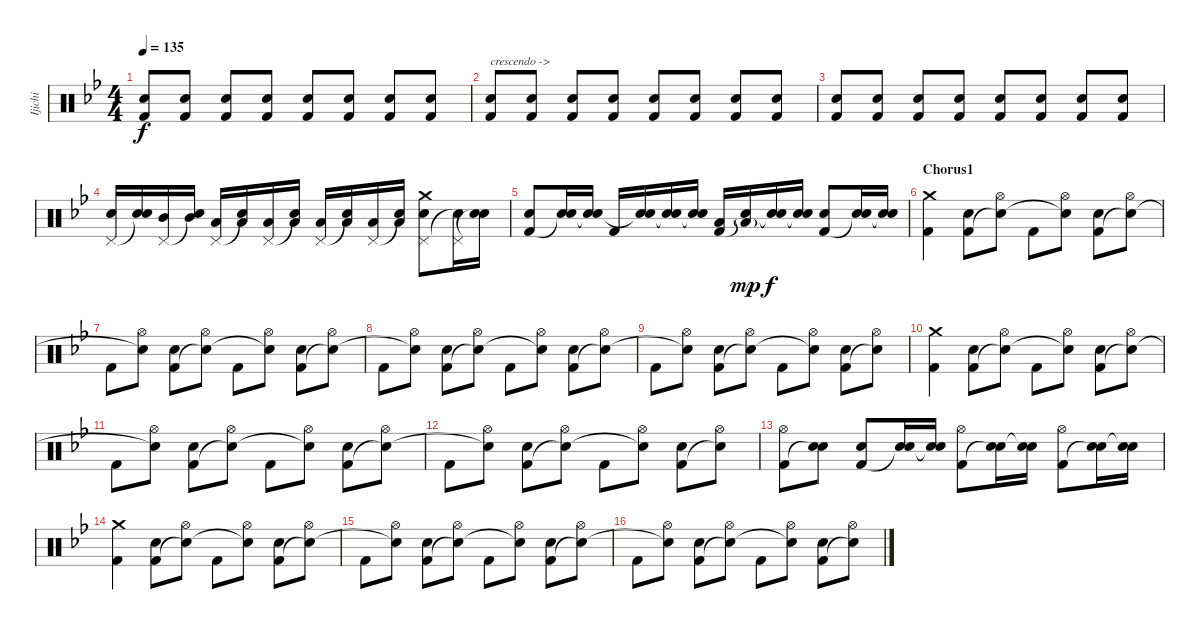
\track ("Ijichi" "Ijichi") {instrument percussion}
\staff {score}
\articulation defaults
\ts (4 4)
\tempo 135
\clef neutral
\ks bb
("Electric Snare (hit)" "Kick (hit) 2").8{dy f} ("Electric Snare (hit)" "Kick (hit) 2").8 ("Electric Snare (hit)" "Kick (hit) 2").8 ("Electric Snare (hit)" "Kick (hit) 2").8 ("Electric Snare (hit)" "Kick (hit) 2").8 ("Electric Snare (hit)" "Kick (hit) 2").8 ("Electric Snare (hit)" "Kick (hit) 2").8 ("Electric Snare (hit)" "Kick (hit) 2").8 |
("Electric Snare (hit)" "Kick (hit) 2").8{txt "crescendo ->"} ("Electric Snare (hit)" "Kick (hit) 2").8 ("Electric Snare (hit)" "Kick (hit) 2").8 ("Electric Snare (hit)" "Kick (hit) 2").8 ("Electric Snare (hit)" "Kick (hit) 2").8 ("Electric Snare (hit)" "Kick (hit) 2").8 ("Electric Snare (hit)" "Kick (hit) 2").8 ("Electric Snare (hit)" "Kick (hit) 2").8 |
("Electric Snare (hit)" "Kick (hit) 2").8 ("Electric Snare (hit)" "Kick (hit) 2").8 ("Electric Snare (hit)" "Kick (hit) 2").8 ("Electric Snare (hit)" "Kick (hit) 2").8 ("Electric Snare (hit)" "Kick (hit) 2").8 ("Electric Snare (hit)" "Kick (hit) 2").8 ("Electric Snare (hit)" "Kick (hit) 2").8 ("Electric Snare (hit)" "Kick (hit) 2").8 |
("Pedal Hi-Hat (hit)" "Electric Snare (hit)").16 ("Snare (hit)"{t} "Electric Snare (hit)").16 ("Pedal Hi-Hat (hit)" "Mid Tom (hit)").16 ("Snare (hit)"{t} "Mid Tom (hit)").16 ("Pedal Hi-Hat (hit)" "Low Tom (hit)").16 ("Snare (hit)"{t} "Low Tom (hit)").16 ("Pedal Hi-Hat (hit)" "Low Floor Tom (hit)").16 ("Snare (hit)"{t} "Low Floor Tom (hit)").16 ("Pedal Hi-Hat (hit)" "Low Floor Tom (hit)").16 ("Snare (hit)"{t} "Low Floor Tom (hit)").16 ("Pedal Hi-Hat (hit)" "Low Floor Tom (hit)").16 ("Snare (hit)"{t} "Low Floor Tom (hit)").16 ("Crash medium (hit)" "Pedal Hi-Hat (hit)" "Electric Snare (hit)").8 ("Pedal Hi-Hat (hit)" "Snare (hit)"{t}).16 ("Snare (hit)"{t} "Electric Snare (hit)").16 |
("Electric Snare (hit)" "Kick (hit) 2").8 ("Electric Snare (hit)" "Snare (hit)"{t}).16 ("Electric Snare (hit)" "Snare (hit)"{t}).16 "Kick (hit) 2".16 ("Electric Snare (hit)" "Snare (hit)"{t}).16 ("Electric Snare (hit)" "Snare (hit)"{t}).16 ("Electric Snare (hit)" "Snare (hit)"{t}).16 ("Low Floor Tom (hit)" "Kick (hit) 2").16 ("Low Floor Tom (hit)"{g} "Snare (hit)"{t}).16{dy mp} ("Electric Snare (hit)" "Snare (hit)"{t}).16{dy f} ("Electric Snare (hit)" "Snare (hit)"{t}).16 ("Electric Snare (hit)" "Kick (hit) 2").8 ("Electric Snare (hit)" "Snare (hit)"{t}).16 ("Electric Snare (hit)" "Snare (hit)"{t}).16 |
\section ("" "Chorus1")
("Crash medium (hit)" "Kick (hit) 2").4 ("Electric Snare (hit)" "Kick (hit) 2").8 ("Hi-Hat (open)" "Snare (hit)"{t}).8 "Kick (hit) 2".8 ("Hi-Hat (open)" "Snare (hit)"{t}).8 ("Electric Snare (hit)" "Kick (hit) 2").8 ("Hi-Hat (open)" "Snare (hit)"{t}).8 |
"Kick (hit) 2".8 ("Hi-Hat (open)" "Snare (hit)"{t}).8 ("Electric Snare (hit)" "Kick (hit) 2").8 ("Hi-Hat (open)" "Snare (hit)"{t}).8 "Kick (hit) 2".8 ("Hi-Hat (open)" "Snare (hit)"{t}).8 ("Electric Snare (hit)" "Kick (hit) 2").8 ("Hi-Hat (open)" "Snare (hit)"{t}).8 |
"Kick (hit) 2".8 ("Hi-Hat (open)" "Snare (hit)"{t}).8 ("Electric Snare (hit)" "Kick (hit) 2").8 ("Hi-Hat (open)" "Snare (hit)"{t}).8 "Kick (hit) 2".8 ("Hi-Hat (open)" "Snare (hit)"{t}).8 ("Electric Snare (hit)" "Kick (hit) 2").8 ("Hi-Hat (open)" "Snare (hit)"{t}).8 |
"Kick (hit) 2".8 ("Hi-Hat (open)" "Snare (hit)"{t}).8 ("Electric Snare (hit)" "Kick (hit) 2").8 ("Hi-Hat (open)" "Snare (hit)"{t}).8 "Kick (hit) 2".8 ("Hi-Hat (open)" "Snare (hit)"{t}).8 ("Electric Snare (hit)" "Kick (hit) 2").8 ("Hi-Hat (open)" "Snare (hit)"{t}).8 |
("Crash medium (hit)" "Kick (hit) 2").4 ("Electric Snare (hit)" "Kick (hit) 2").8 ("Hi-Hat (open)" "Snare (hit)"{t}).8 "Kick (hit) 2".8 ("Hi-Hat (open)" "Snare (hit)"{t}).8 ("Electric Snare (hit)" "Kick (hit) 2").8 ("Hi-Hat (open)" "Snare (hit)"{t}).8 |
"Kick (hit) 2".8 ("Hi-Hat (open)" "Snare (hit)"{t}).8 ("Electric Snare (hit)" "Kick (hit) 2").8 ("Hi-Hat (open)" "Snare (hit)"{t}).8 "Kick (hit) 2".8 ("Hi-Hat (open)" "Snare (hit)"{t}).8 ("Electric Snare (hit)" "Kick (hit) 2").8 ("Hi-Hat (open)" "Snare (hit)"{t}).8 |
"Kick (hit) 2".8 ("Hi-Hat (open)" "Snare (hit)"{t}).8 ("Electric Snare (hit)" "Kick (hit) 2").8 ("Hi-Hat (open)" "Snare (hit)"{t}).8 "Kick (hit) 2".8 ("Hi-Hat (open)" "Snare (hit)"{t}).8 ("Electric Snare (hit)" "Kick (hit) 2").8 ("Hi-Hat (open)" "Snare (hit)"{t}).8 |
("Hi-Hat (open)" "Kick (hit) 2").8 ("Electric Snare (hit)" "Snare (hit)"{t}).8 ("Electric Snare (hit)" "Kick (hit) 2").8 ("Electric Snare (hit)" "Snare (hit)"{t}).16 ("Electric Snare (hit)" "Snare (hit)"{t}).16 ("Hi-Hat (open)" "Kick (hit) 2").8 ("Electric Snare (hit)" "Snare (hit)"{t}).16 ("Electric Snare (hit)" "Snare (hit)"{t}).16 ("Hi-Hat (open)" "Kick (hit) 2").8 ("Electric Snare (hit)" "Snare (hit)"{t}).16 ("Electric Snare (hit)" "Snare (hit)"{t}).16 |
("Crash medium (hit)" "Kick (hit) 2").4 ("Electric Snare (hit)" "Kick (hit) 2").8 ("Hi-Hat (open)" "Snare (hit)"{t}).8 "Kick (hit) 2".8 ("Hi-Hat (open)" "Snare (hit)"{t}).8 ("Electric Snare (hit)" "Kick (hit) 2").8 ("Hi-Hat (open)" "Snare (hit)"{t}).8 |
"Kick (hit) 2".8 ("Hi-Hat (open)" "Snare (hit)"{t}).8 ("Electric Snare (hit)" "Kick (hit) 2").8 ("Hi-Hat (open)" "Snare (hit)"{t}).8 "Kick (hit) 2".8 ("Hi-Hat (open)" "Snare (hit)"{t}).8 ("Electric Snare (hit)" "Kick (hit) 2").8 ("Hi-Hat (open)" "Snare (hit)"{t}).8 |
"Kick (hit) 2".8 ("Hi-Hat (open)" "Snare (hit)"{t}).8 ("Electric Snare (hit)" "Kick (hit) 2").8 ("Hi-Hat (open)" "Snare (hit)"{t}).8 "Kick (hit) 2".8 ("Hi-Hat (open)" "Snare (hit)"{t}).8 ("Electric Snare (hit)" "Kick (hit) 2").8 ("Hi-Hat (open)" "Snare (hit)"{t}).8
